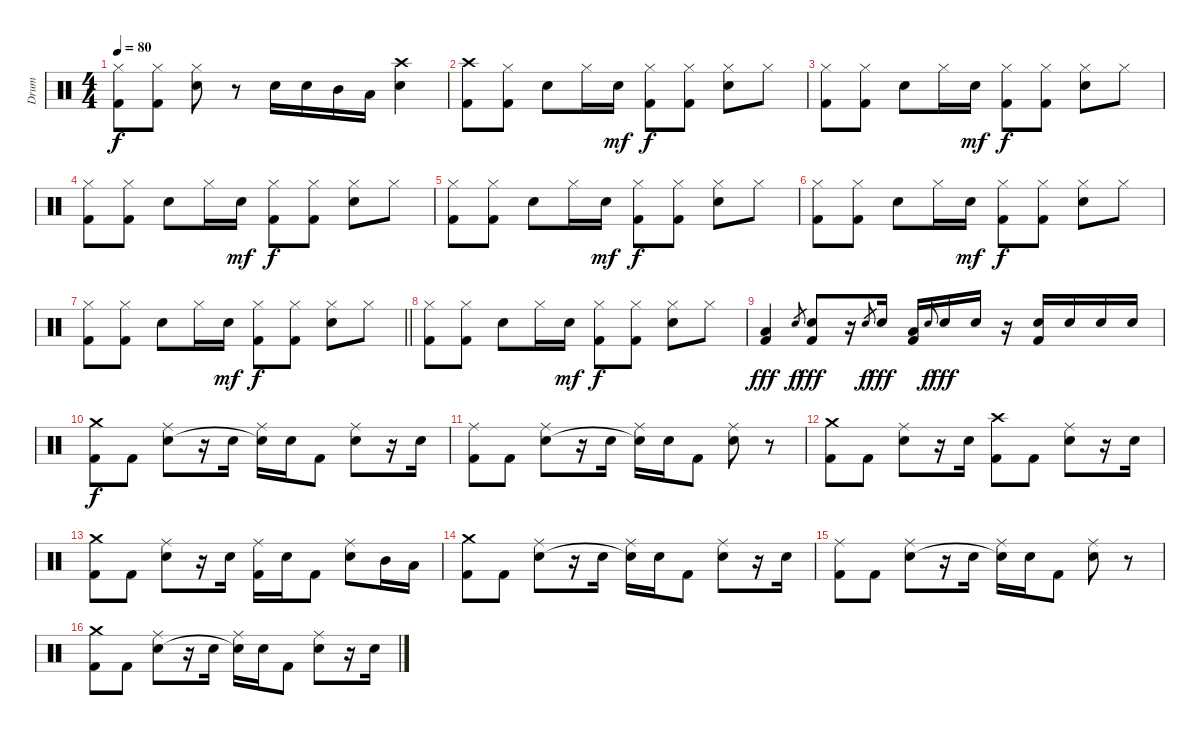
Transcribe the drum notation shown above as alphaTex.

\track ("Drum" "Drum") {instrument percussion}
\staff {score}
\articulation defaults
\ts (4 4)
\tempo 80
\clef neutral
\ks c
("Hi-Hat (closed)" "Kick (hit) 2").8{dy f} ("Hi-Hat (closed)" "Kick (hit) 2").8 ("Hi-Hat (closed)" "Electric Snare (hit)").8 r.8 "Electric Snare (hit)".16 "Electric Snare (hit)".16 "Mid Tom (hit)".16 "Low Tom (hit)".16 ("Crash high (hit)" "Electric Snare (hit)").4 |
("Kick (hit) 2" "Crash high (hit)").8 ("Kick (hit) 2" "Hi-Hat (closed)").8 "Electric Snare (hit)".8 "Hi-Hat (closed)".16 "Electric Snare (hit)".16{dy mf} ("Kick (hit) 2" "Hi-Hat (closed)").8{dy f} ("Kick (hit) 2" "Hi-Hat (closed)").8 ("Electric Snare (hit)" "Hi-Hat (closed)").8 "Hi-Hat (closed)".8 |
("Kick (hit) 2" "Hi-Hat (closed)").8 ("Kick (hit) 2" "Hi-Hat (closed)").8 "Electric Snare (hit)".8 "Hi-Hat (closed)".16 "Electric Snare (hit)".16{dy mf} ("Kick (hit) 2" "Hi-Hat (closed)").8{dy f} ("Kick (hit) 2" "Hi-Hat (closed)").8 ("Electric Snare (hit)" "Hi-Hat (closed)").8 "Hi-Hat (closed)".8 |
("Kick (hit) 2" "Hi-Hat (closed)").8 ("Kick (hit) 2" "Hi-Hat (closed)").8 "Electric Snare (hit)".8 "Hi-Hat (closed)".16 "Electric Snare (hit)".16{dy mf} ("Kick (hit) 2" "Hi-Hat (closed)").8{dy f} ("Kick (hit) 2" "Hi-Hat (closed)").8 ("Electric Snare (hit)" "Hi-Hat (closed)").8 "Hi-Hat (closed)".8 |
("Kick (hit) 2" "Hi-Hat (closed)").8 ("Kick (hit) 2" "Hi-Hat (closed)").8 "Electric Snare (hit)".8 "Hi-Hat (closed)".16 "Electric Snare (hit)".16{dy mf} ("Kick (hit) 2" "Hi-Hat (closed)").8{dy f} ("Kick (hit) 2" "Hi-Hat (closed)").8 ("Electric Snare (hit)" "Hi-Hat (closed)").8 "Hi-Hat (closed)".8 |
("Kick (hit) 2" "Hi-Hat (closed)").8 ("Kick (hit) 2" "Hi-Hat (closed)").8 "Electric Snare (hit)".8 "Hi-Hat (closed)".16 "Electric Snare (hit)".16{dy mf} ("Kick (hit) 2" "Hi-Hat (closed)").8{dy f} ("Kick (hit) 2" "Hi-Hat (closed)").8 ("Electric Snare (hit)" "Hi-Hat (closed)").8 "Hi-Hat (closed)".8 |
\barLineRight lightlight
("Kick (hit) 2" "Hi-Hat (closed)").8 ("Kick (hit) 2" "Hi-Hat (closed)").8 "Electric Snare (hit)".8 "Hi-Hat (closed)".16 "Electric Snare (hit)".16{dy mf} ("Kick (hit) 2" "Hi-Hat (closed)").8{dy f} ("Kick (hit) 2" "Hi-Hat (closed)").8 ("Electric Snare (hit)" "Hi-Hat (closed)").8 "Hi-Hat (closed)".8 |
("Kick (hit) 2" "Hi-Hat (closed)").8 ("Kick (hit) 2" "Hi-Hat (closed)").8 "Electric Snare (hit)".8 "Hi-Hat (closed)".16 "Electric Snare (hit)".16{dy mf} ("Kick (hit) 2" "Hi-Hat (closed)").8{dy f} ("Kick (hit) 2" "Hi-Hat (closed)").8 ("Electric Snare (hit)" "Hi-Hat (closed)").8 "Hi-Hat (closed)".8 |
("Kick (hit) 2" "Low Tom (hit)").4{dy fff} "Snare (hit) 2".8{gr dy f} ("Snare (hit) 2" "Kick (hit) 2").8{dy fff} r.16 "Snare (hit) 2".8{gr dy f} "Snare (hit) 2".16{dy fff} ("Low Floor Tom (hit)" "Kick (hit) 2").16 "Snare (hit) 2".8{gr onbeat dy f} "Snare (hit) 2".16{dy fff} "Snare (hit) 2".16 r.16 ("Snare (hit) 2" "Kick (hit) 2").16 "Snare (hit) 2".16 "Snare (hit) 2".16 "Snare (hit) 2".16 |
("Crash medium (hit)" "Kick (hit) 2").8{dy f} "Kick (hit) 2".8 ("Ride (middle)" "Electric Snare (hit)").8 r.16 "Electric Snare (hit)".16 ("Ride (middle)" "Electric Snare (hit)"{t}).16 "Electric Snare (hit)".16 "Kick (hit) 2".8 ("Ride (middle)" "Electric Snare (hit)").8 r.16 "Electric Snare (hit)".16 |
("Ride (middle)" "Kick (hit) 2").8 "Kick (hit) 2".8 ("Ride (middle)" "Electric Snare (hit)").8 r.16 "Electric Snare (hit)".16 ("Ride (middle)" "Electric Snare (hit)"{t}).16 "Electric Snare (hit)".16 "Kick (hit) 2".8 ("Ride (middle)" "Electric Snare (hit)").8 r.8 |
("Crash medium (hit)" "Kick (hit) 2").8 "Kick (hit) 2".8 ("Ride (middle)" "Electric Snare (hit)").8 r.16 "Electric Snare (hit)".16 ("Crash high (hit)" "Kick (hit) 2").8 "Kick (hit) 2".8 ("Ride (middle)" "Electric Snare (hit)").8 r.16 "Electric Snare (hit)".16 |
("Crash medium (hit)" "Kick (hit) 2").8 "Kick (hit) 2".8 ("Ride (middle)" "Electric Snare (hit)").8 r.16 "Electric Snare (hit)".16 ("Ride (middle)" "Kick (hit) 2").16 "Electric Snare (hit)".16 "Kick (hit) 2".8 ("Ride (middle)" "Electric Snare (hit)").8 "Mid Tom (hit)".16 "Low Tom (hit)".16 |
("Crash medium (hit)" "Kick (hit) 2").8 "Kick (hit) 2".8 ("Ride (middle)" "Electric Snare (hit)").8 r.16 "Electric Snare (hit)".16 ("Ride (middle)" "Electric Snare (hit)"{t}).16 "Electric Snare (hit)".16 "Kick (hit) 2".8 ("Ride (middle)" "Electric Snare (hit)").8 r.16 "Electric Snare (hit)".16 |
("Ride (middle)" "Kick (hit) 2").8 "Kick (hit) 2".8 ("Ride (middle)" "Electric Snare (hit)").8 r.16 "Electric Snare (hit)".16 ("Ride (middle)" "Electric Snare (hit)"{t}).16 "Electric Snare (hit)".16 "Kick (hit) 2".8 ("Ride (middle)" "Electric Snare (hit)").8 r.8 |
("Crash medium (hit)" "Kick (hit) 2").8 "Kick (hit) 2".8 ("Ride (middle)" "Electric Snare (hit)").8 r.16 "Electric Snare (hit)".16 ("Ride (middle)" "Electric Snare (hit)"{t}).16 "Electric Snare (hit)".16 "Kick (hit) 2".8 ("Ride (middle)" "Electric Snare (hit)").8 r.16 "Electric Snare (hit)".16
